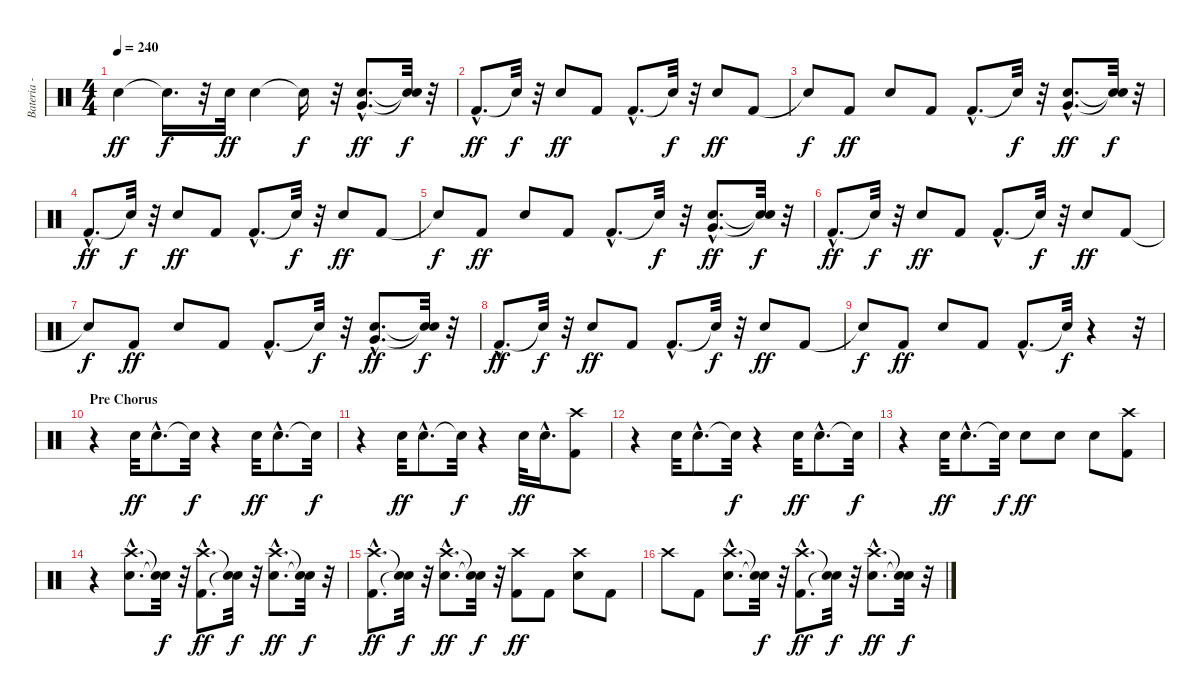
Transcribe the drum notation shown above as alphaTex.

\track ("Bateria - Larzon" "Bateria - ") {instrument percussion}
\staff {score}
\articulation defaults
\ts (4 4)
\tempo 240
\clef neutral
\ks c "Electric Snare (hit)".4{dy ff} "Snare (hit)"{t}.16{d dy f}
r.32 "Electric Snare (hit)".32{dy ff} "Electric Snare (hit)".4 "Snare (hit)"{t}.16{dy f} r.32 ("Electric Snare (hit)"{hac} "Very Low Tom (hit)"{hac}).8{d dy ff} ("Snare (hit)"{t} "Snare (hit)"{t}).32{dy f} r.32 |
"Kick (hit) 2"{hac}.8{d dy ff} "Snare (hit)"{t}.32{dy f} r.32 "Electric Snare (hit)".8{dy ff} "Kick (hit) 2".8 "Kick (hit) 2"{hac}.8{d} "Snare (hit)"{t}.32{dy f} r.32 "Electric Snare (hit)".8{dy ff} "Kick (hit) 2".8 |
"Snare (hit)"{t}.8{dy f} "Kick (hit) 2".8{dy ff} "Electric Snare (hit)".8 "Kick (hit) 2".8 "Kick (hit) 2"{hac}.8{d} "Snare (hit)"{t}.32{dy f} r.32 ("Electric Snare (hit)"{hac} "Very Low Tom (hit)"{hac}).8{d dy ff} ("Snare (hit)"{t} "Snare (hit)"{t}).32{dy f} r.32 |
"Kick (hit) 2"{hac}.8{d dy ff} "Snare (hit)"{t}.32{dy f} r.32 "Electric Snare (hit)".8{dy ff} "Kick (hit) 2".8 "Kick (hit) 2"{hac}.8{d} "Snare (hit)"{t}.32{dy f} r.32 "Electric Snare (hit)".8{dy ff} "Kick (hit) 2".8 |
"Snare (hit)"{t}.8{dy f} "Kick (hit) 2".8{dy ff} "Electric Snare (hit)".8 "Kick (hit) 2".8 "Kick (hit) 2"{hac}.8{d} "Snare (hit)"{t}.32{dy f} r.32 ("Electric Snare (hit)"{hac} "Very Low Tom (hit)"{hac}).8{d dy ff} ("Snare (hit)"{t} "Snare (hit)"{t}).32{dy f} r.32 |
"Kick (hit) 2"{hac}.8{d dy ff} "Snare (hit)"{t}.32{dy f} r.32 "Electric Snare (hit)".8{dy ff} "Kick (hit) 2".8 "Kick (hit) 2"{hac}.8{d} "Snare (hit)"{t}.32{dy f} r.32 "Electric Snare (hit)".8{dy ff} "Kick (hit) 2".8 |
"Snare (hit)"{t}.8{dy f} "Kick (hit) 2".8{dy ff} "Electric Snare (hit)".8 "Kick (hit) 2".8 "Kick (hit) 2"{hac}.8{d} "Snare (hit)"{t}.32{dy f} r.32 ("Electric Snare (hit)"{hac} "Very Low Tom (hit)"{hac}).8{d dy ff} ("Snare (hit)"{t} "Snare (hit)"{t}).32{dy f} r.32 |
"Kick (hit) 2"{hac}.8{d dy ff} "Snare (hit)"{t}.32{dy f} r.32 "Electric Snare (hit)".8{dy ff} "Kick (hit) 2".8 "Kick (hit) 2"{hac}.8{d} "Snare (hit)"{t}.32{dy f} r.32 "Electric Snare (hit)".8{dy ff} "Kick (hit) 2".8 |
"Snare (hit)"{t}.8{dy f} "Kick (hit) 2".8{dy ff} "Electric Snare (hit)".8 "Kick (hit) 2".8 "Kick (hit) 2"{hac}.8{d} "Snare (hit)"{t}.32{dy f} r.4 r.32 |
\section ("" "Pre Chorus")
r.4 "Electric Snare (hit)".32{dy ff} "Electric Snare (hit)"{hac}.8{d} "Snare (hit)"{t}.32{dy f} r.4 "Electric Snare (hit)".32{dy ff} "Electric Snare (hit)"{hac}.8{d} "Snare (hit)"{t}.32{dy f} |
r.4 "Electric Snare (hit)".32{dy ff} "Electric Snare (hit)"{hac}.8{d} "Snare (hit)"{t}.32{dy f} r.4 "Electric Snare (hit)".32{dy ff} "Electric Snare (hit)"{hac}.16{d} ("Kick (hit) 2" "Crash high (hit)").8 |
r.4 "Electric Snare (hit)".32 "Electric Snare (hit)"{hac}.8{d} "Snare (hit)"{t}.32{dy f} r.4 "Electric Snare (hit)".32{dy ff} "Electric Snare (hit)"{hac}.8{d} "Snare (hit)"{t}.32{dy f} |
r.4 "Electric Snare (hit)".32{dy ff} "Electric Snare (hit)"{hac}.8{d} "Snare (hit)"{t}.32{dy f} "Electric Snare (hit)".8{dy ff} "Electric Snare (hit)".8 "Electric Snare (hit)".8 ("Kick (hit) 2" "Crash high (hit)").8 |
r.4 ("Electric Snare (hit)"{hac} "Crash high (hit)"{hac}).8{d} ("Snare (hit)"{t} "Snare (hit)"{t}).32{dy f} r.32 ("Kick (hit) 2"{hac} "Crash high (hit)"{hac}).8{d dy ff} ("Snare (hit)"{t} "Snare (hit)"{t}).32{dy f} r.32 ("Electric Snare (hit)"{hac} "Crash high (hit)"{hac}).8{d dy ff} ("Snare (hit)"{t} "Snare (hit)"{t}).32{dy f} r.32 |
("Kick (hit) 2"{hac} "Crash high (hit)"{hac}).8{d dy ff} ("Snare (hit)"{t} "Snare (hit)"{t}).32{dy f} r.32 ("Electric Snare (hit)"{hac} "Crash high (hit)"{hac}).8{d dy ff} ("Snare (hit)"{t} "Snare (hit)"{t}).32{dy f} r.32 ("Kick (hit) 2" "Crash high (hit)").8{dy ff} "Kick (hit) 2".8 ("Electric Snare (hit)" "Crash high (hit)").8 "Kick (hit) 2".8 |
"Crash high (hit)".8 "Kick (hit) 2".8 ("Electric Snare (hit)"{hac} "Crash high (hit)"{hac}).8{d} ("Snare (hit)"{t} "Snare (hit)"{t}).32{dy f} r.32 ("Kick (hit) 2"{hac} "Crash high (hit)"{hac}).8{d dy ff} ("Snare (hit)"{t} "Snare (hit)"{t}).32{dy f} r.32 ("Electric Snare (hit)"{hac} "Crash high (hit)"{hac}).8{d dy ff} ("Snare (hit)"{t} "Snare (hit)"{t}).32{dy f} r.32
